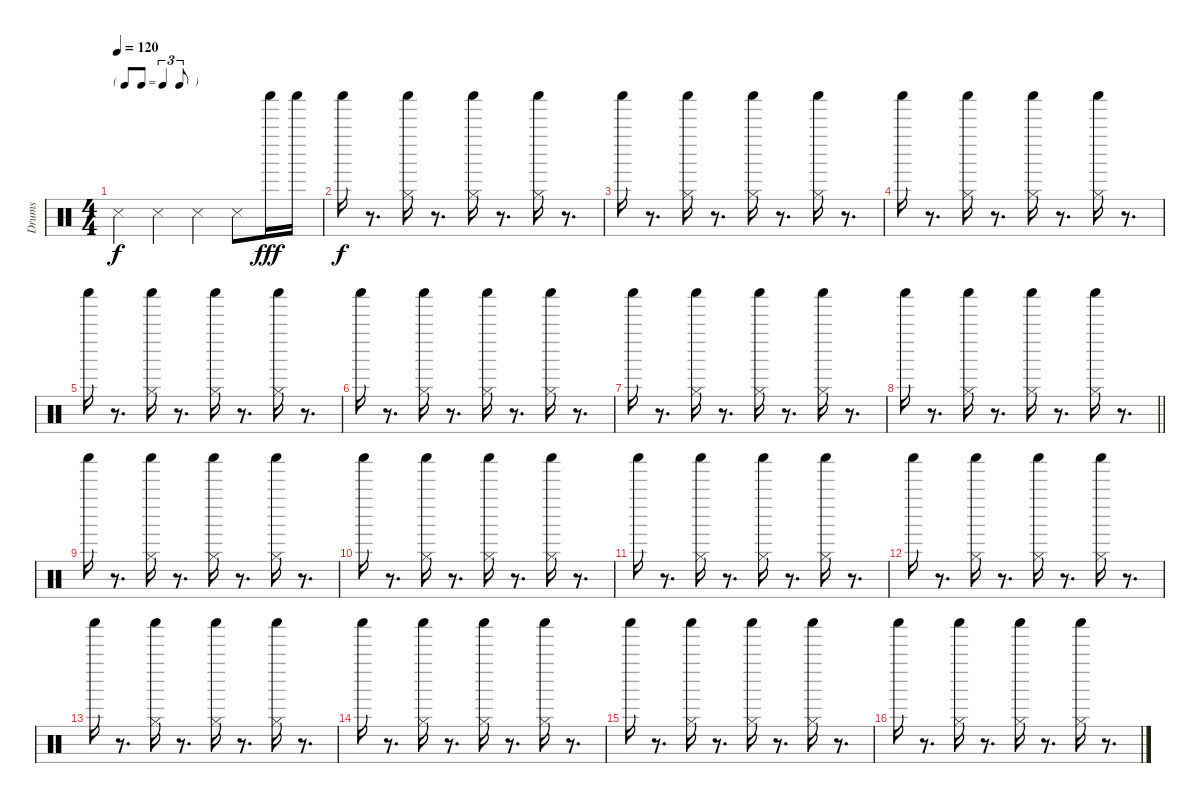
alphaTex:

\track ("Drums  " "Drums  ") {instrument percussion}
\staff {score}
\articulation defaults
\ts (4 4)
\tf triplet8th
\tempo 120
\clef neutral
\ks c "Snare (side stick) 3".4{dy f} "Snare (side stick) 3".4 "Snare (side stick) 3".4 "Snare (side stick) 3".8 "Shaker (hit)".16{dy fff} "Shaker (hit)".16
|
"Shaker (hit)".16{dy f} r.8{d} ("Shaker (hit)" "Hi-Hat (closed)").16 r.8{d} ("Shaker (hit)" "Hi-Hat (closed)").16 r.8{d} ("Shaker (hit)" "Hi-Hat (closed)").16 r.8{d} |
"Shaker (hit)".16 r.8{d} ("Shaker (hit)" "Hi-Hat (closed)").16 r.8{d} ("Shaker (hit)" "Hi-Hat (closed)").16 r.8{d} ("Shaker (hit)" "Hi-Hat (closed)").16 r.8{d} |
"Shaker (hit)".16 r.8{d} ("Shaker (hit)" "Hi-Hat (closed)").16 r.8{d} ("Shaker (hit)" "Hi-Hat (closed)").16 r.8{d} ("Shaker (hit)" "Hi-Hat (closed)").16 r.8{d} |
"Shaker (hit)".16 r.8{d} ("Shaker (hit)" "Hi-Hat (closed)").16 r.8{d} ("Shaker (hit)" "Hi-Hat (closed)").16 r.8{d} ("Shaker (hit)" "Hi-Hat (closed)").16 r.8{d} |
"Shaker (hit)".16 r.8{d} ("Shaker (hit)" "Hi-Hat (closed)").16 r.8{d} ("Shaker (hit)" "Hi-Hat (closed)").16 r.8{d} ("Shaker (hit)" "Hi-Hat (closed)").16 r.8{d} |
"Shaker (hit)".16 r.8{d} ("Shaker (hit)" "Hi-Hat (closed)").16 r.8{d} ("Shaker (hit)" "Hi-Hat (closed)").16 r.8{d} ("Shaker (hit)" "Hi-Hat (closed)").16 r.8{d} |
\barLineRight lightlight "Shaker (hit)".16
r.8{d} ("Shaker (hit)" "Hi-Hat (closed)").16 r.8{d} ("Shaker (hit)" "Hi-Hat (closed)").16 r.8{d} ("Shaker (hit)" "Hi-Hat (closed)").16 r.8{d} |
"Shaker (hit)".16 r.8{d} ("Shaker (hit)" "Hi-Hat (closed)").16 r.8{d} ("Shaker (hit)" "Hi-Hat (closed)").16 r.8{d} ("Shaker (hit)" "Hi-Hat (closed)").16 r.8{d} |
"Shaker (hit)".16 r.8{d} ("Shaker (hit)" "Hi-Hat (closed)").16 r.8{d} ("Shaker (hit)" "Hi-Hat (closed)").16 r.8{d} ("Shaker (hit)" "Hi-Hat (closed)").16 r.8{d} |
"Shaker (hit)".16 r.8{d} ("Shaker (hit)" "Hi-Hat (closed)").16 r.8{d} ("Shaker (hit)" "Hi-Hat (closed)").16 r.8{d} ("Shaker (hit)" "Hi-Hat (closed)").16 r.8{d} |
"Shaker (hit)".16 r.8{d} ("Shaker (hit)" "Hi-Hat (closed)").16 r.8{d} ("Shaker (hit)" "Hi-Hat (closed)").16 r.8{d} ("Shaker (hit)" "Hi-Hat (closed)").16 r.8{d} |
"Shaker (hit)".16 r.8{d} ("Shaker (hit)" "Hi-Hat (closed)").16 r.8{d} ("Shaker (hit)" "Hi-Hat (closed)").16 r.8{d} ("Shaker (hit)" "Hi-Hat (closed)").16 r.8{d} |
"Shaker (hit)".16 r.8{d} ("Shaker (hit)" "Hi-Hat (closed)").16 r.8{d} ("Shaker (hit)" "Hi-Hat (closed)").16 r.8{d} ("Shaker (hit)" "Hi-Hat (closed)").16 r.8{d} |
"Shaker (hit)".16 r.8{d} ("Shaker (hit)" "Hi-Hat (closed)").16 r.8{d} ("Shaker (hit)" "Hi-Hat (closed)").16 r.8{d} ("Shaker (hit)" "Hi-Hat (closed)").16 r.8{d} |
"Shaker (hit)".16 r.8{d} ("Shaker (hit)" "Hi-Hat (closed)").16 r.8{d} ("Shaker (hit)" "Hi-Hat (closed)").16 r.8{d} ("Shaker (hit)" "Hi-Hat (closed)").16 r.8{d}
